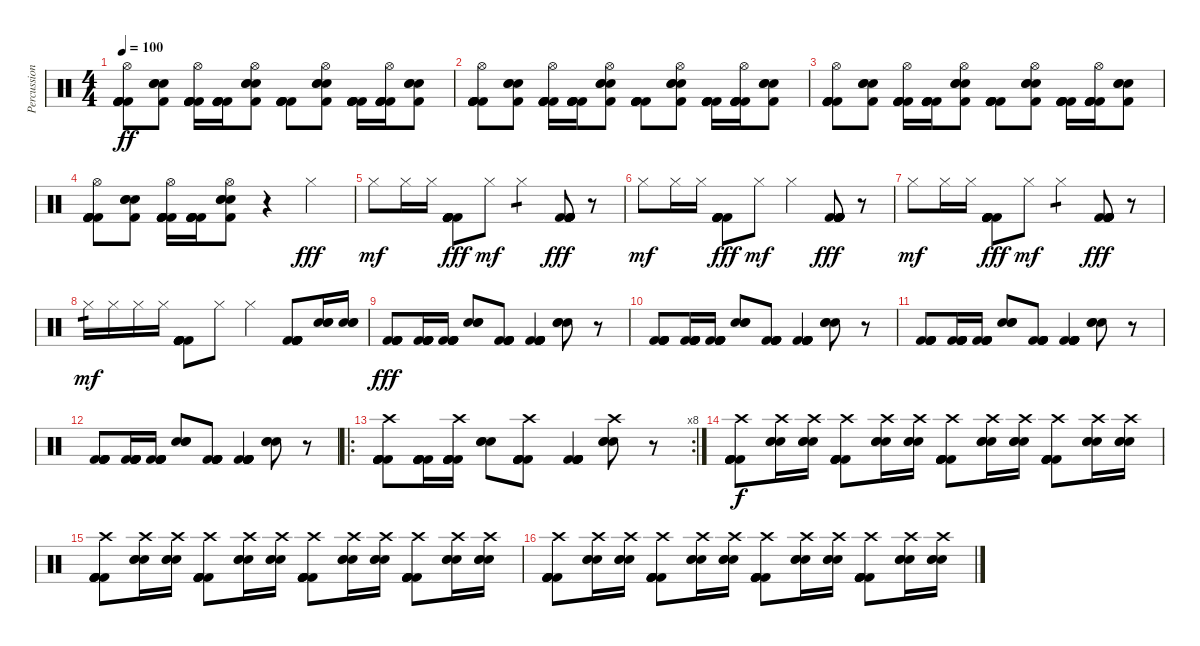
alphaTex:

\track ("Percussion" "Percussion") {instrument percussion}
\staff {score}
\articulation defaults
\ts (4 4)
\tempo 100
\clef neutral
\ks c
("Hi-Hat (open)" "Kick (hit) 2" "Kick (hit) 2" "Kick (hit) 2" "Kick (hit) 2" "Kick (hit) 2").8{dy ff} ("Kick (hit) 2" "Snare (hit) 2" "Snare (hit) 2" "Snare (hit) 2").8 ("Hi-Hat (open)" "Kick (hit) 2" "Kick (hit) 2" "Kick (hit) 2" "Kick (hit) 2" "Kick (hit) 2").16 ("Kick (hit) 2" "Kick (hit) 2" "Kick (hit) 2" "Kick (hit) 2" "Kick (hit) 2").16 ("Hi-Hat (open)" "Kick (hit) 2" "Snare (hit) 2" "Snare (hit) 2" "Snare (hit) 2").8 ("Kick (hit) 2" "Kick (hit) 2" "Kick (hit) 2" "Kick (hit) 2" "Kick (hit) 2").8 ("Hi-Hat (open)" "Kick (hit) 2" "Snare (hit) 2" "Snare (hit) 2" "Snare (hit) 2").8 ("Kick (hit) 2" "Kick (hit) 2" "Kick (hit) 2" "Kick (hit) 2" "Kick (hit) 2").16 ("Hi-Hat (open)" "Kick (hit) 2" "Kick (hit) 2" "Kick (hit) 2" "Kick (hit) 2" "Kick (hit) 2").16 ("Kick (hit) 2" "Snare (hit) 2" "Snare (hit) 2" "Snare (hit) 2").8 |
("Hi-Hat (open)" "Kick (hit) 2" "Kick (hit) 2" "Kick (hit) 2" "Kick (hit) 2" "Kick (hit) 2").8 ("Kick (hit) 2" "Snare (hit) 2" "Snare (hit) 2" "Snare (hit) 2").8 ("Hi-Hat (open)" "Kick (hit) 2" "Kick (hit) 2" "Kick (hit) 2" "Kick (hit) 2" "Kick (hit) 2").16 ("Kick (hit) 2" "Kick (hit) 2" "Kick (hit) 2" "Kick (hit) 2" "Kick (hit) 2").16 ("Hi-Hat (open)" "Kick (hit) 2" "Snare (hit) 2" "Snare (hit) 2" "Snare (hit) 2").8 ("Kick (hit) 2" "Kick (hit) 2" "Kick (hit) 2" "Kick (hit) 2" "Kick (hit) 2").8 ("Hi-Hat (open)" "Kick (hit) 2" "Snare (hit) 2" "Snare (hit) 2" "Snare (hit) 2").8 ("Kick (hit) 2" "Kick (hit) 2" "Kick (hit) 2" "Kick (hit) 2" "Kick (hit) 2").16 ("Hi-Hat (open)" "Kick (hit) 2" "Kick (hit) 2" "Kick (hit) 2" "Kick (hit) 2" "Kick (hit) 2").16 ("Kick (hit) 2" "Snare (hit) 2" "Snare (hit) 2" "Snare (hit) 2").8 |
("Hi-Hat (open)" "Kick (hit) 2" "Kick (hit) 2" "Kick (hit) 2" "Kick (hit) 2" "Kick (hit) 2").8 ("Kick (hit) 2" "Snare (hit) 2" "Snare (hit) 2" "Snare (hit) 2").8 ("Hi-Hat (open)" "Kick (hit) 2" "Kick (hit) 2" "Kick (hit) 2" "Kick (hit) 2" "Kick (hit) 2").16 ("Kick (hit) 2" "Kick (hit) 2" "Kick (hit) 2" "Kick (hit) 2" "Kick (hit) 2").16 ("Hi-Hat (open)" "Kick (hit) 2" "Snare (hit) 2" "Snare (hit) 2" "Snare (hit) 2").8 ("Kick (hit) 2" "Kick (hit) 2" "Kick (hit) 2" "Kick (hit) 2" "Kick (hit) 2").8 ("Hi-Hat (open)" "Kick (hit) 2" "Snare (hit) 2" "Snare (hit) 2" "Snare (hit) 2").8 ("Kick (hit) 2" "Kick (hit) 2" "Kick (hit) 2" "Kick (hit) 2" "Kick (hit) 2").16 ("Hi-Hat (open)" "Kick (hit) 2" "Kick (hit) 2" "Kick (hit) 2" "Kick (hit) 2" "Kick (hit) 2").16 ("Kick (hit) 2" "Snare (hit) 2" "Snare (hit) 2" "Snare (hit) 2").8 |
("Hi-Hat (open)" "Kick (hit) 2" "Kick (hit) 2" "Kick (hit) 2" "Kick (hit) 2" "Kick (hit) 2").8 ("Kick (hit) 2" "Snare (hit) 2" "Snare (hit) 2" "Snare (hit) 2").8 ("Hi-Hat (open)" "Kick (hit) 2" "Kick (hit) 2" "Kick (hit) 2" "Kick (hit) 2" "Kick (hit) 2").16 ("Kick (hit) 2" "Kick (hit) 2" "Kick (hit) 2" "Kick (hit) 2" "Kick (hit) 2").16 ("Hi-Hat (open)" "Kick (hit) 2" "Snare (hit) 2" "Snare (hit) 2" "Snare (hit) 2").8 r.4 "Hi-Hat (closed)".4{dy fff} |
"Hi-Hat (closed)".8{dy mf} "Hi-Hat (closed)".16 "Hi-Hat (closed)".16 ("Kick (hit) 2" "Kick (hit) 2" "Kick (hit) 2" "Kick (hit) 2" "Kick (hit) 2" "Kick (hit) 2").8{dy fff} "Hi-Hat (closed)".8{dy mf} "Hi-Hat (closed)".4{tp 1} ("Kick (hit) 2" "Kick (hit) 2" "Kick (hit) 2" "Kick (hit) 2" "Kick (hit) 2" "Kick (hit) 2").8{dy fff} r.8 |
"Hi-Hat (closed)".8{dy mf} "Hi-Hat (closed)".16 "Hi-Hat (closed)".16 ("Kick (hit) 2" "Kick (hit) 2" "Kick (hit) 2" "Kick (hit) 2" "Kick (hit) 2" "Kick (hit) 2").8{dy fff} "Hi-Hat (closed)".8{dy mf} "Hi-Hat (closed)".4 ("Kick (hit) 2" "Kick (hit) 2" "Kick (hit) 2" "Kick (hit) 2" "Kick (hit) 2" "Kick (hit) 2").8{dy fff} r.8 |
"Hi-Hat (closed)".8{dy mf} "Hi-Hat (closed)".16 "Hi-Hat (closed)".16 ("Kick (hit) 2" "Kick (hit) 2" "Kick (hit) 2" "Kick (hit) 2" "Kick (hit) 2" "Kick (hit) 2").8{dy fff} "Hi-Hat (closed)".8{dy mf} "Hi-Hat (closed)".4{tp 1} ("Kick (hit) 2" "Kick (hit) 2" "Kick (hit) 2" "Kick (hit) 2" "Kick (hit) 2" "Kick (hit) 2").8{dy fff} r.8 |
"Hi-Hat (closed)".16{tp 1 dy mf} "Hi-Hat (closed)".16 "Hi-Hat (closed)".16 "Hi-Hat (closed)".16 ("Kick (hit) 2" "Kick (hit) 2" "Kick (hit) 2" "Kick (hit) 2" "Kick (hit) 2" "Kick (hit) 2").8 "Hi-Hat (closed)".8 "Hi-Hat (closed)".4 ("Kick (hit) 2" "Kick (hit) 2" "Kick (hit) 2" "Kick (hit) 2" "Kick (hit) 2" "Kick (hit) 2").8 ("Snare (hit) 2" "Snare (hit) 2" "Snare (hit) 2").16 ("Snare (hit) 2" "Snare (hit) 2" "Snare (hit) 2").16 |
("Kick (hit) 2" "Kick (hit) 2" "Kick (hit) 2" "Kick (hit) 2" "Kick (hit) 2").8{dy fff} ("Kick (hit) 2" "Kick (hit) 2" "Kick (hit) 2" "Kick (hit) 2" "Kick (hit) 2" "Kick (hit) 2").16 ("Kick (hit) 2" "Kick (hit) 2" "Kick (hit) 2" "Kick (hit) 2" "Kick (hit) 2").16 ("Snare (hit) 2" "Snare (hit) 2" "Snare (hit) 2").8 ("Kick (hit) 2" "Kick (hit) 2" "Kick (hit) 2" "Kick (hit) 2" "Kick (hit) 2").8 ("Kick (hit) 2" "Kick (hit) 2" "Kick (hit) 2" "Kick (hit) 2" "Kick (hit) 2" "Kick (hit) 2").4 ("Snare (hit) 2" "Snare (hit) 2" "Snare (hit) 2").8 r.8 |
("Kick (hit) 2" "Kick (hit) 2" "Kick (hit) 2" "Kick (hit) 2" "Kick (hit) 2").8 ("Kick (hit) 2" "Kick (hit) 2" "Kick (hit) 2" "Kick (hit) 2" "Kick (hit) 2" "Kick (hit) 2").16 ("Kick (hit) 2" "Kick (hit) 2" "Kick (hit) 2" "Kick (hit) 2" "Kick (hit) 2").16 ("Snare (hit) 2" "Snare (hit) 2" "Snare (hit) 2").8 ("Kick (hit) 2" "Kick (hit) 2" "Kick (hit) 2" "Kick (hit) 2" "Kick (hit) 2").8 ("Kick (hit) 2" "Kick (hit) 2" "Kick (hit) 2" "Kick (hit) 2" "Kick (hit) 2" "Kick (hit) 2").4 ("Snare (hit) 2" "Snare (hit) 2" "Snare (hit) 2").8 r.8 |
("Kick (hit) 2" "Kick (hit) 2" "Kick (hit) 2" "Kick (hit) 2" "Kick (hit) 2").8 ("Kick (hit) 2" "Kick (hit) 2" "Kick (hit) 2" "Kick (hit) 2" "Kick (hit) 2" "Kick (hit) 2").16 ("Kick (hit) 2" "Kick (hit) 2" "Kick (hit) 2" "Kick (hit) 2" "Kick (hit) 2").16 ("Snare (hit) 2" "Snare (hit) 2" "Snare (hit) 2").8 ("Kick (hit) 2" "Kick (hit) 2" "Kick (hit) 2" "Kick (hit) 2" "Kick (hit) 2").8 ("Kick (hit) 2" "Kick (hit) 2" "Kick (hit) 2" "Kick (hit) 2" "Kick (hit) 2" "Kick (hit) 2").4 ("Snare (hit) 2" "Snare (hit) 2" "Snare (hit) 2").8 r.8 |
("Kick (hit) 2" "Kick (hit) 2" "Kick (hit) 2" "Kick (hit) 2" "Kick (hit) 2").8 ("Kick (hit) 2" "Kick (hit) 2" "Kick (hit) 2" "Kick (hit) 2" "Kick (hit) 2" "Kick (hit) 2").16 ("Kick (hit) 2" "Kick (hit) 2" "Kick (hit) 2" "Kick (hit) 2" "Kick (hit) 2").16 ("Snare (hit) 2" "Snare (hit) 2" "Snare (hit) 2").8 ("Kick (hit) 2" "Kick (hit) 2" "Kick (hit) 2" "Kick (hit) 2" "Kick (hit) 2").8 ("Kick (hit) 2" "Kick (hit) 2" "Kick (hit) 2" "Kick (hit) 2" "Kick (hit) 2" "Kick (hit) 2").4 ("Snare (hit) 2" "Snare (hit) 2" "Snare (hit) 2").8 r.8 |
\ro
\rc 8
("Crash high (hit)" "Kick (hit) 2" "Kick (hit) 2" "Kick (hit) 2" "Kick (hit) 2" "Kick (hit) 2").8 ("Kick (hit) 2" "Kick (hit) 2" "Kick (hit) 2" "Kick (hit) 2" "Kick (hit) 2" "Kick (hit) 2").16 ("Crash high (hit)" "Kick (hit) 2" "Kick (hit) 2" "Kick (hit) 2" "Kick (hit) 2" "Kick (hit) 2").16 ("Snare (hit) 2" "Snare (hit) 2" "Snare (hit) 2").8 ("Crash high (hit)" "Kick (hit) 2" "Kick (hit) 2" "Kick (hit) 2" "Kick (hit) 2" "Kick (hit) 2").8 ("Kick (hit) 2" "Kick (hit) 2" "Kick (hit) 2" "Kick (hit) 2" "Kick (hit) 2" "Kick (hit) 2").4 ("Crash high (hit)" "Snare (hit) 2" "Snare (hit) 2" "Snare (hit) 2").8 r.8 |
("Crash high (hit)" "Kick (hit) 2" "Kick (hit) 2" "Kick (hit) 2" "Kick (hit) 2" "Kick (hit) 2").8{dy f} ("Crash high (hit)" "Snare (hit) 2" "Snare (hit) 2" "Snare (hit) 2").16 ("Crash high (hit)" "Snare (hit) 2" "Snare (hit) 2" "Snare (hit) 2").16 ("Crash high (hit)" "Kick (hit) 2" "Kick (hit) 2" "Kick (hit) 2" "Kick (hit) 2" "Kick (hit) 2").8 ("Crash high (hit)" "Snare (hit) 2" "Snare (hit) 2" "Snare (hit) 2").16 ("Crash high (hit)" "Snare (hit) 2" "Snare (hit) 2" "Snare (hit) 2").16 ("Crash high (hit)" "Kick (hit) 2" "Kick (hit) 2" "Kick (hit) 2" "Kick (hit) 2" "Kick (hit) 2").8 ("Crash high (hit)" "Snare (hit) 2" "Snare (hit) 2" "Snare (hit) 2").16 ("Crash high (hit)" "Snare (hit) 2" "Snare (hit) 2" "Snare (hit) 2").16 ("Crash high (hit)" "Kick (hit) 2" "Kick (hit) 2" "Kick (hit) 2" "Kick (hit) 2" "Kick (hit) 2").8 ("Crash high (hit)" "Snare (hit) 2" "Snare (hit) 2" "Snare (hit) 2").16 ("Crash high (hit)" "Snare (hit) 2" "Snare (hit) 2" "Snare (hit) 2").16 |
("Crash high (hit)" "Kick (hit) 2" "Kick (hit) 2" "Kick (hit) 2" "Kick (hit) 2" "Kick (hit) 2").8 ("Crash high (hit)" "Snare (hit) 2" "Snare (hit) 2" "Snare (hit) 2").16 ("Crash high (hit)" "Snare (hit) 2" "Snare (hit) 2" "Snare (hit) 2").16 ("Crash high (hit)" "Kick (hit) 2" "Kick (hit) 2" "Kick (hit) 2" "Kick (hit) 2" "Kick (hit) 2").8 ("Crash high (hit)" "Snare (hit) 2" "Snare (hit) 2" "Snare (hit) 2").16 ("Crash high (hit)" "Snare (hit) 2" "Snare (hit) 2" "Snare (hit) 2").16 ("Crash high (hit)" "Kick (hit) 2" "Kick (hit) 2" "Kick (hit) 2" "Kick (hit) 2" "Kick (hit) 2").8 ("Crash high (hit)" "Snare (hit) 2" "Snare (hit) 2" "Snare (hit) 2").16 ("Crash high (hit)" "Snare (hit) 2" "Snare (hit) 2" "Snare (hit) 2").16 ("Crash high (hit)" "Kick (hit) 2" "Kick (hit) 2" "Kick (hit) 2" "Kick (hit) 2" "Kick (hit) 2").8 ("Crash high (hit)" "Snare (hit) 2" "Snare (hit) 2" "Snare (hit) 2").16 ("Crash high (hit)" "Snare (hit) 2" "Snare (hit) 2" "Snare (hit) 2").16 |
("Crash high (hit)" "Kick (hit) 2" "Kick (hit) 2" "Kick (hit) 2" "Kick (hit) 2" "Kick (hit) 2").8 ("Crash high (hit)" "Snare (hit) 2" "Snare (hit) 2" "Snare (hit) 2").16 ("Crash high (hit)" "Snare (hit) 2" "Snare (hit) 2" "Snare (hit) 2").16 ("Crash high (hit)" "Kick (hit) 2" "Kick (hit) 2" "Kick (hit) 2" "Kick (hit) 2" "Kick (hit) 2").8 ("Crash high (hit)" "Snare (hit) 2" "Snare (hit) 2" "Snare (hit) 2").16 ("Crash high (hit)" "Snare (hit) 2" "Snare (hit) 2" "Snare (hit) 2").16 ("Crash high (hit)" "Kick (hit) 2" "Kick (hit) 2" "Kick (hit) 2" "Kick (hit) 2" "Kick (hit) 2").8 ("Crash high (hit)" "Snare (hit) 2" "Snare (hit) 2" "Snare (hit) 2").16 ("Crash high (hit)" "Snare (hit) 2" "Snare (hit) 2" "Snare (hit) 2").16 ("Crash high (hit)" "Kick (hit) 2" "Kick (hit) 2" "Kick (hit) 2" "Kick (hit) 2" "Kick (hit) 2").8 ("Crash high (hit)" "Snare (hit) 2" "Snare (hit) 2" "Snare (hit) 2").16 ("Crash high (hit)" "Snare (hit) 2" "Snare (hit) 2" "Snare (hit) 2").16
